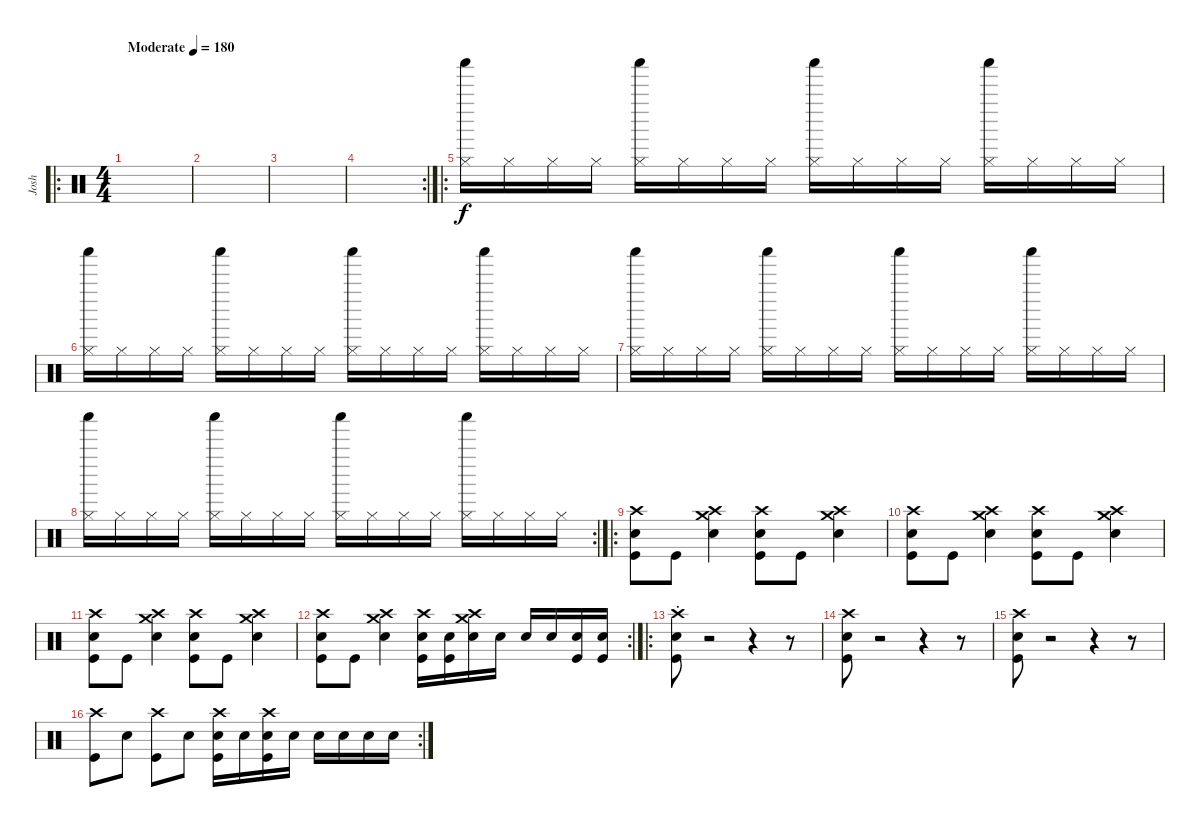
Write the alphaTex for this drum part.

\track ("Josh" "Josh") {instrument percussion}
\staff {score}
\articulation defaults
\ro
\ts (4 4)
\tempo (180 "Moderate")
\clef neutral
\ks c
|
|
|
\rc 2
|
\ro
("Hi-Hat (closed)" "Shaker (hit)").16 "Hi-Hat (closed)".16 "Hi-Hat (closed)".16 "Hi-Hat (closed)".16 ("Hi-Hat (closed)" "Shaker (hit)").16 "Hi-Hat (closed)".16 "Hi-Hat (closed)".16 "Hi-Hat (closed)".16 ("Hi-Hat (closed)" "Shaker (hit)").16 "Hi-Hat (closed)".16 "Hi-Hat (closed)".16 "Hi-Hat (closed)".16 ("Hi-Hat (closed)" "Shaker (hit)").16 "Hi-Hat (closed)".16 "Hi-Hat (closed)".16 "Hi-Hat (closed)".16 |
("Hi-Hat (closed)" "Shaker (hit)").16 "Hi-Hat (closed)".16 "Hi-Hat (closed)".16 "Hi-Hat (closed)".16 ("Hi-Hat (closed)" "Shaker (hit)").16 "Hi-Hat (closed)".16 "Hi-Hat (closed)".16 "Hi-Hat (closed)".16 ("Hi-Hat (closed)" "Shaker (hit)").16 "Hi-Hat (closed)".16 "Hi-Hat (closed)".16 "Hi-Hat (closed)".16 ("Hi-Hat (closed)" "Shaker (hit)").16 "Hi-Hat (closed)".16 "Hi-Hat (closed)".16 "Hi-Hat (closed)".16 |
("Hi-Hat (closed)" "Shaker (hit)").16 "Hi-Hat (closed)".16 "Hi-Hat (closed)".16 "Hi-Hat (closed)".16 ("Hi-Hat (closed)" "Shaker (hit)").16 "Hi-Hat (closed)".16 "Hi-Hat (closed)".16 "Hi-Hat (closed)".16 ("Hi-Hat (closed)" "Shaker (hit)").16 "Hi-Hat (closed)".16 "Hi-Hat (closed)".16 "Hi-Hat (closed)".16 ("Hi-Hat (closed)" "Shaker (hit)").16 "Hi-Hat (closed)".16 "Hi-Hat (closed)".16 "Hi-Hat (closed)".16 |
\rc 2
("Hi-Hat (closed)" "Shaker (hit)").16 "Hi-Hat (closed)".16 "Hi-Hat (closed)".16 "Hi-Hat (closed)".16 ("Hi-Hat (closed)" "Shaker (hit)").16 "Hi-Hat (closed)".16 "Hi-Hat (closed)".16 "Hi-Hat (closed)".16 ("Hi-Hat (closed)" "Shaker (hit)").16 "Hi-Hat (closed)".16 "Hi-Hat (closed)".16 "Hi-Hat (closed)".16 ("Hi-Hat (closed)" "Shaker (hit)").16 "Hi-Hat (closed)".16 "Hi-Hat (closed)".16 "Hi-Hat (closed)".16 |
\ro
("Kick (hit)" "Electric Snare (hit)" "Crash high (hit)").8 "Kick (hit)".8 ("Electric Snare (hit)" "Crash medium (hit)" "Crash high (hit)").4 ("Kick (hit)" "Electric Snare (hit)" "Crash high (hit)").8 "Kick (hit)".8 ("Electric Snare (hit)" "Crash medium (hit)" "Crash high (hit)").4 |
("Kick (hit)" "Electric Snare (hit)" "Crash high (hit)").8 "Kick (hit)".8 ("Electric Snare (hit)" "Crash medium (hit)" "Crash high (hit)").4 ("Kick (hit)" "Electric Snare (hit)" "Crash high (hit)").8 "Kick (hit)".8 ("Electric Snare (hit)" "Crash medium (hit)" "Crash high (hit)").4 |
("Kick (hit)" "Electric Snare (hit)" "Crash high (hit)").8 "Kick (hit)".8 ("Electric Snare (hit)" "Crash medium (hit)" "Crash high (hit)").4 ("Kick (hit)" "Electric Snare (hit)" "Crash high (hit)").8 "Kick (hit)".8 ("Electric Snare (hit)" "Crash medium (hit)" "Crash high (hit)").4 |
\rc 2
("Kick (hit)" "Electric Snare (hit)" "Crash high (hit)").8 "Kick (hit)".8 ("Electric Snare (hit)" "Crash medium (hit)" "Crash high (hit)").4 ("Kick (hit)" "Electric Snare (hit)" "Crash high (hit)").16 ("Kick (hit)" "Electric Snare (hit)").16 ("Electric Snare (hit)" "Crash medium (hit)" "Crash high (hit)").16 "Electric Snare (hit)".16 "Electric Snare (hit)".16 "Electric Snare (hit)".16 ("Kick (hit)" "Electric Snare (hit)").16 ("Kick (hit)" "Electric Snare (hit)").16 |
\ro
("Kick (hit)" "Electric Snare (hit)" "Crash high (hit)"{st}).8 r.2 r.4 r.8 |
("Kick (hit)" "Electric Snare (hit)" "Crash high (hit)").8 r.2 r.4 r.8 |
("Kick (hit)" "Electric Snare (hit)" "Crash high (hit)").8 r.2 r.4 r.8 |
\rc 2
("Kick (hit)" "Crash high (hit)").8 "Electric Snare (hit)".8 ("Kick (hit)" "Crash high (hit)").8 "Electric Snare (hit)".8 ("Kick (hit)" "Electric Snare (hit)" "Crash high (hit)").16 "Electric Snare (hit)".16 ("Kick (hit)" "Electric Snare (hit)" "Crash high (hit)").16 "Electric Snare (hit)".16 "Electric Snare (hit)".16 "Electric Snare (hit)".16 "Electric Snare (hit)".16 "Electric Snare (hit)".16
